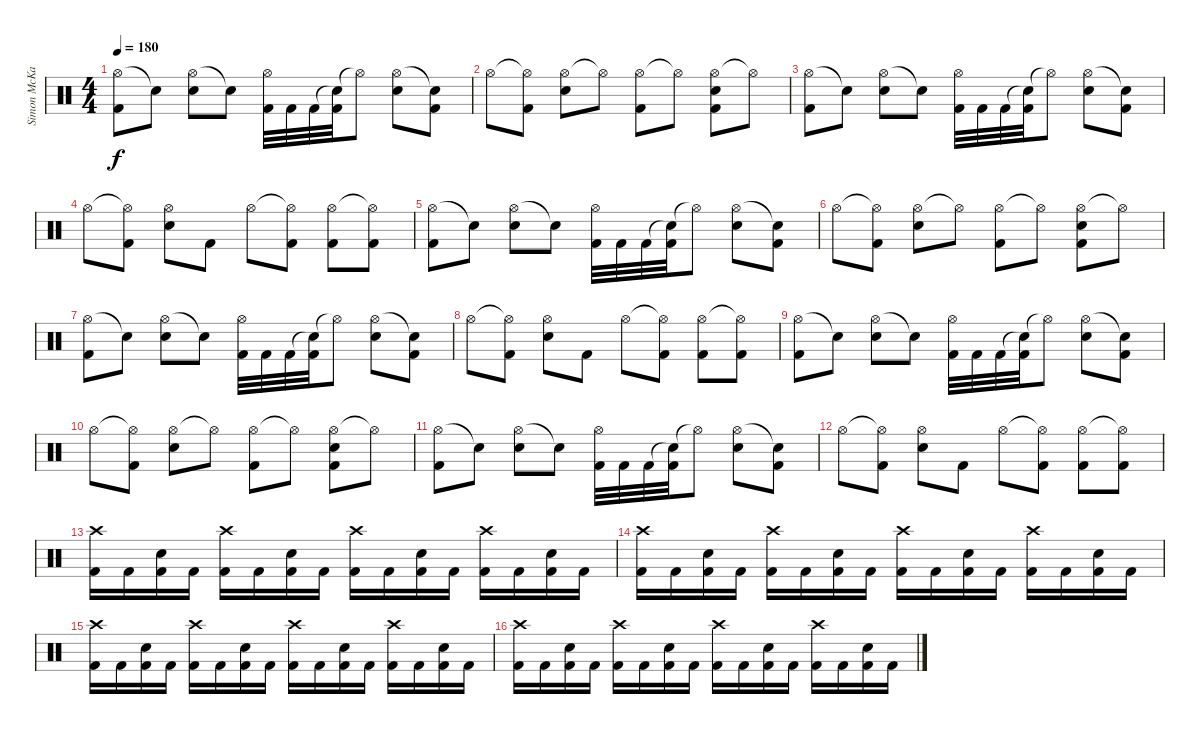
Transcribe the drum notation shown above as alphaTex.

\track ("Simon McKay" "Simon McKa") {instrument percussion}
\staff {score}
\articulation defaults
\ts (4 4)
\tempo 180
\clef neutral
\ks c
("Hi-Hat (open)" "Kick (hit) 2").8{dy f} "Snare (hit) 2"{t}.8 ("Hi-Hat (open)" "Snare (hit) 2").8 "Snare (hit)"{t}.8 ("Hi-Hat (open)" "Kick (hit) 2").32 "Kick (hit) 2".32 "Kick (hit) 2".32 ("Snare (hit)"{t} "Kick (hit) 2").32 "Hi-Hat (open)"{t}.8 ("Hi-Hat (open)" "Snare (hit) 2").8 ("Snare (hit)"{t} "Kick (hit) 2").8 |
"Hi-Hat (open)".8 ("Hi-Hat (open)"{t} "Kick (hit) 2").8 ("Hi-Hat (open)" "Snare (hit) 2").8 "Hi-Hat (open)"{t}.8 ("Hi-Hat (open)" "Kick (hit) 2").8 "Hi-Hat (open)"{t}.8 ("Hi-Hat (open)" "Snare (hit) 2" "Kick (hit) 2").8 "Hi-Hat (open)"{t}.8 |
("Hi-Hat (open)" "Kick (hit) 2").8 "Snare (hit)"{t}.8 ("Hi-Hat (open)" "Snare (hit) 2").8 "Snare (hit)"{t}.8 ("Hi-Hat (open)" "Kick (hit) 2").32 "Kick (hit) 2".32 "Kick (hit) 2".32 ("Snare (hit)"{t} "Kick (hit) 2").32 "Hi-Hat (open)"{t}.8 ("Hi-Hat (open)" "Snare (hit) 2").8 ("Snare (hit)"{t} "Kick (hit) 2").8 |
"Hi-Hat (open)".8 ("Hi-Hat (open)"{t} "Kick (hit) 2").8 ("Hi-Hat (open)" "Snare (hit) 2").8 "Kick (hit) 2".8 "Hi-Hat (open)".8 ("Hi-Hat (open)"{t} "Kick (hit) 2").8 ("Hi-Hat (open)" "Kick (hit) 2").8 ("Hi-Hat (open)"{t} "Kick (hit) 2").8 |
("Hi-Hat (open)" "Kick (hit) 2").8 "Snare (hit)"{t}.8 ("Hi-Hat (open)" "Snare (hit) 2").8 "Snare (hit)"{t}.8 ("Hi-Hat (open)" "Kick (hit) 2").32 "Kick (hit) 2".32 "Kick (hit) 2".32 ("Snare (hit)"{t} "Kick (hit) 2").32 "Hi-Hat (open)"{t}.8 ("Hi-Hat (open)" "Snare (hit) 2").8 ("Snare (hit)"{t} "Kick (hit) 2").8 |
"Hi-Hat (open)".8 ("Hi-Hat (open)"{t} "Kick (hit) 2").8 ("Hi-Hat (open)" "Snare (hit) 2").8 "Hi-Hat (open)"{t}.8 ("Hi-Hat (open)" "Kick (hit) 2").8 "Hi-Hat (open)"{t}.8 ("Hi-Hat (open)" "Snare (hit) 2" "Kick (hit) 2").8 "Hi-Hat (open)"{t}.8 |
("Hi-Hat (open)" "Kick (hit) 2").8 "Snare (hit)"{t}.8 ("Hi-Hat (open)" "Snare (hit) 2").8 "Snare (hit)"{t}.8 ("Hi-Hat (open)" "Kick (hit) 2").32 "Kick (hit) 2".32 "Kick (hit) 2".32 ("Snare (hit)"{t} "Kick (hit) 2").32 "Hi-Hat (open)"{t}.8 ("Hi-Hat (open)" "Snare (hit) 2").8 ("Snare (hit)"{t} "Kick (hit) 2").8 |
"Hi-Hat (open)".8 ("Hi-Hat (open)"{t} "Kick (hit) 2").8 ("Hi-Hat (open)" "Snare (hit) 2").8 "Kick (hit) 2".8 "Hi-Hat (open)".8 ("Hi-Hat (open)"{t} "Kick (hit) 2").8 ("Hi-Hat (open)" "Kick (hit) 2").8 ("Hi-Hat (open)"{t} "Kick (hit) 2").8 |
("Hi-Hat (open)" "Kick (hit) 2").8 "Snare (hit)"{t}.8 ("Hi-Hat (open)" "Snare (hit) 2").8 "Snare (hit)"{t}.8 ("Hi-Hat (open)" "Kick (hit) 2").32 "Kick (hit) 2".32 "Kick (hit) 2".32 ("Snare (hit)"{t} "Kick (hit) 2").32 "Hi-Hat (open)"{t}.8 ("Hi-Hat (open)" "Snare (hit) 2").8 ("Snare (hit)"{t} "Kick (hit) 2").8 |
"Hi-Hat (open)".8 ("Hi-Hat (open)"{t} "Kick (hit) 2").8 ("Hi-Hat (open)" "Snare (hit) 2").8 "Hi-Hat (open)"{t}.8 ("Hi-Hat (open)" "Kick (hit) 2").8 "Hi-Hat (open)"{t}.8 ("Hi-Hat (open)" "Snare (hit) 2" "Kick (hit) 2").8 "Hi-Hat (open)"{t}.8 |
("Hi-Hat (open)" "Kick (hit) 2").8 "Snare (hit)"{t}.8 ("Hi-Hat (open)" "Snare (hit) 2").8 "Snare (hit)"{t}.8 ("Hi-Hat (open)" "Kick (hit) 2").32 "Kick (hit) 2".32 "Kick (hit) 2".32 ("Snare (hit)"{t} "Kick (hit) 2").32 "Hi-Hat (open)"{t}.8 ("Hi-Hat (open)" "Snare (hit) 2").8 ("Snare (hit)"{t} "Kick (hit) 2").8 |
"Hi-Hat (open)".8 ("Hi-Hat (open)"{t} "Kick (hit) 2").8 ("Hi-Hat (open)" "Snare (hit) 2").8 "Kick (hit) 2".8 "Hi-Hat (open)".8 ("Hi-Hat (open)"{t} "Kick (hit) 2").8 ("Hi-Hat (open)" "Kick (hit) 2").8 ("Hi-Hat (open)"{t} "Kick (hit) 2").8 |
("Crash high (hit)" "Kick (hit) 2").16 "Kick (hit) 2".16 ("Snare (hit) 2" "Kick (hit) 2").16 "Kick (hit) 2".16 ("Crash high (hit)" "Kick (hit) 2").16 "Kick (hit) 2".16 ("Snare (hit) 2" "Kick (hit) 2").16 "Kick (hit) 2".16 ("Crash high (hit)" "Kick (hit) 2").16 "Kick (hit) 2".16 ("Snare (hit) 2" "Kick (hit) 2").16 "Kick (hit) 2".16 ("Crash high (hit)" "Kick (hit) 2").16 "Kick (hit) 2".16 ("Snare (hit) 2" "Kick (hit) 2").16 "Kick (hit) 2".16 |
("Crash high (hit)" "Kick (hit) 2").16 "Kick (hit) 2".16 ("Snare (hit) 2" "Kick (hit) 2").16 "Kick (hit) 2".16 ("Crash high (hit)" "Kick (hit) 2").16 "Kick (hit) 2".16 ("Snare (hit) 2" "Kick (hit) 2").16 "Kick (hit) 2".16 ("Crash high (hit)" "Kick (hit) 2").16 "Kick (hit) 2".16 ("Snare (hit) 2" "Kick (hit) 2").16 "Kick (hit) 2".16 ("Crash high (hit)" "Kick (hit) 2").16 "Kick (hit) 2".16 ("Snare (hit) 2" "Kick (hit) 2").16 "Kick (hit) 2".16 |
("Crash high (hit)" "Kick (hit) 2").16 "Kick (hit) 2".16 ("Snare (hit) 2" "Kick (hit) 2").16 "Kick (hit) 2".16 ("Crash high (hit)" "Kick (hit) 2").16 "Kick (hit) 2".16 ("Snare (hit) 2" "Kick (hit) 2").16 "Kick (hit) 2".16 ("Crash high (hit)" "Kick (hit) 2").16 "Kick (hit) 2".16 ("Snare (hit) 2" "Kick (hit) 2").16 "Kick (hit) 2".16 ("Crash high (hit)" "Kick (hit) 2").16 "Kick (hit) 2".16 ("Snare (hit) 2" "Kick (hit) 2").16 "Kick (hit) 2".16 |
("Crash high (hit)" "Kick (hit) 2").16 "Kick (hit) 2".16 ("Snare (hit) 2" "Kick (hit) 2").16 "Kick (hit) 2".16 ("Crash high (hit)" "Kick (hit) 2").16 "Kick (hit) 2".16 ("Snare (hit) 2" "Kick (hit) 2").16 "Kick (hit) 2".16 ("Crash high (hit)" "Kick (hit) 2").16 "Kick (hit) 2".16 ("Snare (hit) 2" "Kick (hit) 2").16 "Kick (hit) 2".16 ("Crash high (hit)" "Kick (hit) 2").16 "Kick (hit) 2".16 ("Snare (hit) 2" "Kick (hit) 2").16 "Kick (hit) 2".16
